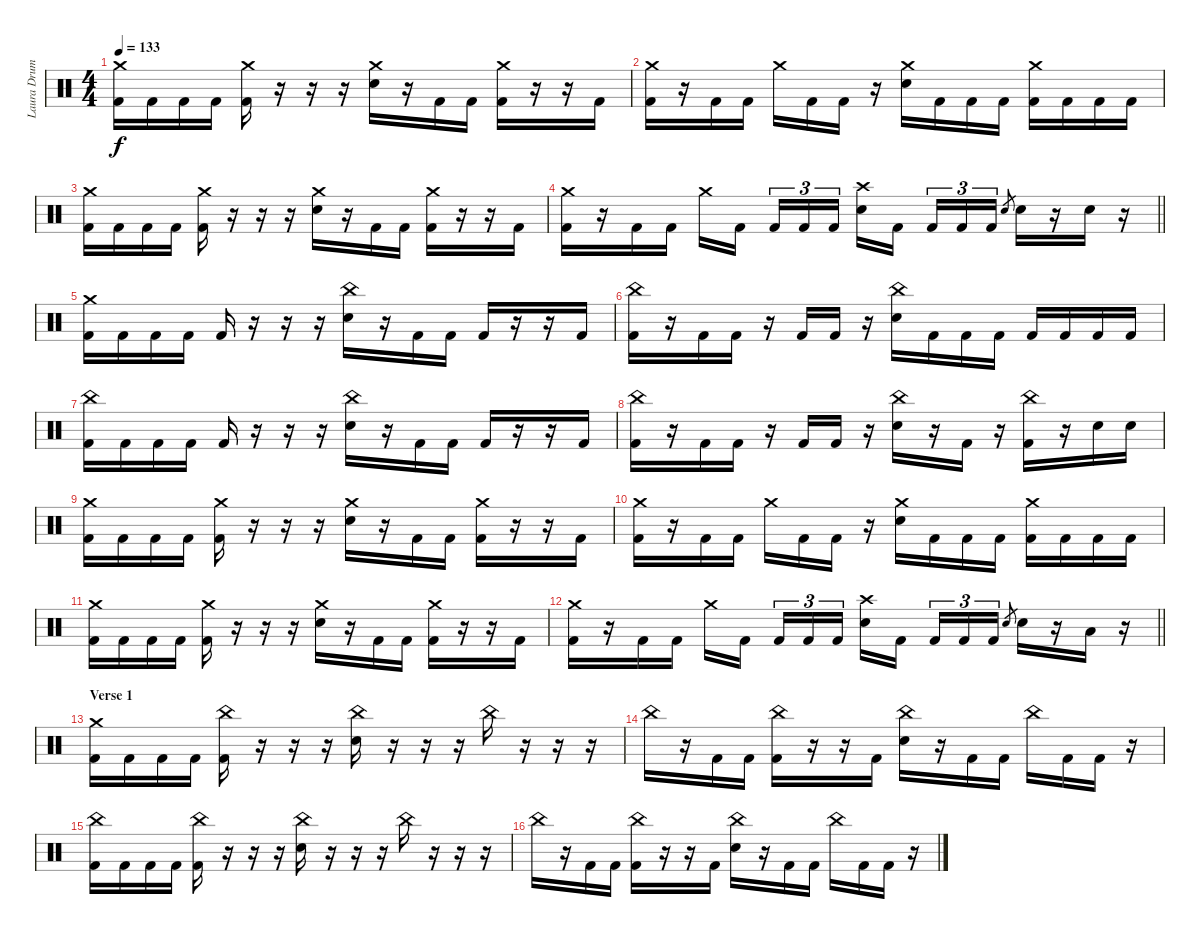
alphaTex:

\track ("Laura Drums" "Laura Drum") {instrument percussion}
\staff {score}
\articulation defaults
\ts (4 4)
\tempo 133
\clef neutral
\ks c
("Crash medium (hit)" "Kick (hit) 2").16{dy f} "Kick (hit) 2".16 "Kick (hit) 2".16 "Kick (hit) 2".16 ("Crash medium (hit)" "Kick (hit) 2").16 r.16 r.16 r.16 ("Crash medium (hit)" "Electric Snare (hit)").16 r.16 "Kick (hit) 2".16 "Kick (hit) 2".16 ("Crash medium (hit)" "Kick (hit) 2").16 r.16 r.16 "Kick (hit) 2".16 |
("Crash medium (hit)" "Kick (hit) 2").16 r.16 "Kick (hit) 2".16 "Kick (hit) 2".16 "Crash medium (hit)".16 "Kick (hit) 2".16 "Kick (hit) 2".16 r.16 ("Crash medium (hit)" "Electric Snare (hit)").16 "Kick (hit) 2".16 "Kick (hit) 2".16 "Kick (hit) 2".16 ("Crash medium (hit)" "Kick (hit) 2").16 "Kick (hit) 2".16 "Kick (hit) 2".16 "Kick (hit) 2".16 |
("Crash medium (hit)" "Kick (hit) 2").16 "Kick (hit) 2".16 "Kick (hit) 2".16 "Kick (hit) 2".16 ("Crash medium (hit)" "Kick (hit) 2").16 r.16 r.16 r.16 ("Crash medium (hit)" "Electric Snare (hit)").16 r.16 "Kick (hit) 2".16 "Kick (hit) 2".16 ("Crash medium (hit)" "Kick (hit) 2").16 r.16 r.16 "Kick (hit) 2".16 |
\barLineRight lightlight
("Crash medium (hit)" "Kick (hit) 2").16 r.16 "Kick (hit) 2".16 "Kick (hit) 2".16 "Crash medium (hit)".16 "Kick (hit) 2".16{beam splitsecondary} "Kick (hit) 2".16{tu (3 2)} "Kick (hit) 2".16{tu (3 2)} "Kick (hit) 2".16{tu (3 2)} ("Crash high (hit)" "Electric Snare (hit)").16 "Kick (hit) 2".16{beam splitsecondary} "Kick (hit) 2".16{tu (3 2)} "Kick (hit) 2".16{tu (3 2)} "Kick (hit) 2".16{tu (3 2)} "Electric Snare (hit)".8{gr} "Electric Snare (hit)".16 r.16 "Electric Snare (hit)".16 r.16 |
\section ("" "")
("Crash medium (hit)" "Kick (hit) 2").16 "Kick (hit) 2".16 "Kick (hit) 2".16 "Kick (hit) 2".16 "Kick (hit) 2".16 r.16 r.16 r.16 ("China (hit)" "Electric Snare (hit)").16 r.16 "Kick (hit) 2".16 "Kick (hit) 2".16 "Kick (hit) 2".16 r.16 r.16 "Kick (hit) 2".16 |
("China (hit)" "Kick (hit) 2").16 r.16 "Kick (hit) 2".16 "Kick (hit) 2".16 r.16 "Kick (hit) 2".16 "Kick (hit) 2".16 r.16 ("China (hit)" "Electric Snare (hit)").16 "Kick (hit) 2".16 "Kick (hit) 2".16 "Kick (hit) 2".16 "Kick (hit) 2".16 "Kick (hit) 2".16 "Kick (hit) 2".16 "Kick (hit) 2".16 |
("China (hit)" "Kick (hit) 2").16 "Kick (hit) 2".16 "Kick (hit) 2".16 "Kick (hit) 2".16 "Kick (hit) 2".16 r.16 r.16 r.16 ("China (hit)" "Electric Snare (hit)").16 r.16 "Kick (hit) 2".16 "Kick (hit) 2".16 "Kick (hit) 2".16 r.16 r.16 "Kick (hit) 2".16 |
("China (hit)" "Kick (hit) 2").16 r.16 "Kick (hit) 2".16 "Kick (hit) 2".16 r.16 "Kick (hit) 2".16 "Kick (hit) 2".16 r.16 ("China (hit)" "Electric Snare (hit)").16 r.16 "Kick (hit) 2".16 r.16 ("China (hit)" "Kick (hit) 2").16 r.16 "Electric Snare (hit)".16 "Electric Snare (hit)".16 |
("Crash medium (hit)" "Kick (hit) 2").16 "Kick (hit) 2".16 "Kick (hit) 2".16 "Kick (hit) 2".16 ("Crash medium (hit)" "Kick (hit) 2").16 r.16 r.16 r.16 ("Crash medium (hit)" "Electric Snare (hit)").16 r.16 "Kick (hit) 2".16 "Kick (hit) 2".16 ("Crash medium (hit)" "Kick (hit) 2").16 r.16 r.16 "Kick (hit) 2".16 |
("Crash medium (hit)" "Kick (hit) 2").16 r.16 "Kick (hit) 2".16 "Kick (hit) 2".16 "Crash medium (hit)".16 "Kick (hit) 2".16 "Kick (hit) 2".16 r.16 ("Crash medium (hit)" "Electric Snare (hit)").16 "Kick (hit) 2".16 "Kick (hit) 2".16 "Kick (hit) 2".16 ("Crash medium (hit)" "Kick (hit) 2").16 "Kick (hit) 2".16 "Kick (hit) 2".16 "Kick (hit) 2".16 |
("Crash medium (hit)" "Kick (hit) 2").16 "Kick (hit) 2".16 "Kick (hit) 2".16 "Kick (hit) 2".16 ("Crash medium (hit)" "Kick (hit) 2").16 r.16 r.16 r.16 ("Crash medium (hit)" "Electric Snare (hit)").16 r.16 "Kick (hit) 2".16 "Kick (hit) 2".16 ("Crash medium (hit)" "Kick (hit) 2").16 r.16 r.16 "Kick (hit) 2".16 |
\barLineRight lightlight
("Crash medium (hit)" "Kick (hit) 2").16 r.16 "Kick (hit) 2".16 "Kick (hit) 2".16 "Crash medium (hit)".16 "Kick (hit) 2".16{beam splitsecondary} "Kick (hit) 2".16{tu (3 2)} "Kick (hit) 2".16{tu (3 2)} "Kick (hit) 2".16{tu (3 2)} ("Crash high (hit)" "Electric Snare (hit)").16 "Kick (hit) 2".16{beam splitsecondary} "Kick (hit) 2".16{tu (3 2)} "Kick (hit) 2".16{tu (3 2)} "Kick (hit) 2".16{tu (3 2)} "Electric Snare (hit)".8{gr} "Electric Snare (hit)".16 r.16 "Low Tom (hit)".16 r.16 |
\section ("" "Verse 1")
("Crash medium (hit)" "Kick (hit) 2").16 "Kick (hit) 2".16 "Kick (hit) 2".16 "Kick (hit) 2".16 ("China (hit)" "Kick (hit) 2").16 r.16 r.16 r.16 ("China (hit)" "Electric Snare (hit)").16 r.16 r.16 r.16 "China (hit)".16 r.16 r.16 r.16 |
"China (hit)".16 r.16 "Kick (hit) 2".16 "Kick (hit) 2".16 ("China (hit)" "Kick (hit) 2").16 r.16 r.16 "Kick (hit) 2".16 ("China (hit)" "Electric Snare (hit)").16 r.16 "Kick (hit) 2".16 "Kick (hit) 2".16 "China (hit)".16 "Kick (hit) 2".16 "Kick (hit) 2".16 r.16 |
("China (hit)" "Kick (hit) 2").16 "Kick (hit) 2".16 "Kick (hit) 2".16 "Kick (hit) 2".16 ("China (hit)" "Kick (hit) 2").16 r.16 r.16 r.16 ("China (hit)" "Electric Snare (hit)").16 r.16 r.16 r.16 "China (hit)".16 r.16 r.16 r.16 |
"China (hit)".16 r.16 "Kick (hit) 2".16 "Kick (hit) 2".16 ("China (hit)" "Kick (hit) 2").16 r.16 r.16 "Kick (hit) 2".16 ("China (hit)" "Electric Snare (hit)").16 r.16 "Kick (hit) 2".16 "Kick (hit) 2".16 "China (hit)".16 "Kick (hit) 2".16 "Kick (hit) 2".16 r.16
